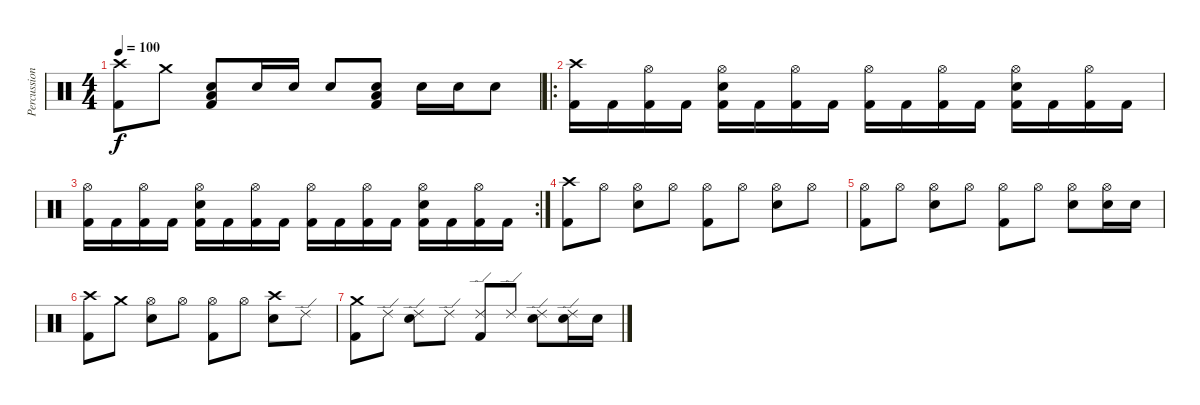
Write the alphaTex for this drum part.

\track ("Percussion" "Percussion") {instrument percussion}
\staff {score}
\articulation defaults
\ts (4 4)
\tempo 100
\clef neutral
\ks c
("Crash high (hit)" "Kick (hit) 2").8{dy f} "Crash medium (hit)".8 ("Snare (hit) 2" "Low Floor Tom (hit)" "Kick (hit) 2").8 "Snare (hit) 2".16 "Snare (hit) 2".16 "Snare (hit) 2".8 ("Low Floor Tom (hit)" "Snare (hit) 2" "Kick (hit) 2").8 "Snare (hit) 2".16 "Snare (hit) 2".16 "Snare (hit) 2".8 |
\ro
("Crash high (hit)" "Kick (hit) 2").16 "Kick (hit) 2".16 ("Hi-Hat (open)" "Kick (hit) 2").16 "Kick (hit) 2".16 ("Hi-Hat (open)" "Snare (hit) 2" "Kick (hit) 2").16 "Kick (hit) 2".16 ("Hi-Hat (open)" "Kick (hit) 2").16 "Kick (hit) 2".16 ("Hi-Hat (open)" "Kick (hit) 2").16 "Kick (hit) 2".16 ("Hi-Hat (open)" "Kick (hit) 2").16 "Kick (hit) 2".16 ("Hi-Hat (open)" "Snare (hit) 2" "Kick (hit) 2").16 "Kick (hit) 2".16 ("Hi-Hat (open)" "Kick (hit) 2").16 "Kick (hit) 2".16 |
\rc 2
("Hi-Hat (open)" "Kick (hit) 2").16 "Kick (hit) 2".16 ("Hi-Hat (open)" "Kick (hit) 2").16 "Kick (hit) 2".16 ("Hi-Hat (open)" "Snare (hit) 2" "Kick (hit) 2").16 "Kick (hit) 2".16 ("Hi-Hat (open)" "Kick (hit) 2").16 "Kick (hit) 2".16 ("Hi-Hat (open)" "Kick (hit) 2").16 "Kick (hit) 2".16 ("Hi-Hat (open)" "Kick (hit) 2").16 "Kick (hit) 2".16 ("Hi-Hat (open)" "Snare (hit) 2" "Kick (hit) 2").16 "Kick (hit) 2".16 ("Hi-Hat (open)" "Kick (hit) 2").16 "Kick (hit) 2".16 |
("Crash high (hit)" "Kick (hit) 2").8 "Hi-Hat (open)".8 ("Hi-Hat (open)" "Snare (hit) 2").8 "Hi-Hat (open)".8 ("Hi-Hat (open)" "Kick (hit) 2").8 "Hi-Hat (open)".8 ("Hi-Hat (open)" "Snare (hit) 2").8 "Hi-Hat (open)".8 |
("Hi-Hat (open)" "Kick (hit) 2").8 "Hi-Hat (open)".8 ("Hi-Hat (open)" "Snare (hit) 2").8 "Hi-Hat (open)".8 ("Hi-Hat (open)" "Kick (hit) 2").8 "Hi-Hat (open)".8 ("Hi-Hat (open)" "Snare (hit) 2").8 ("Hi-Hat (open)" "Snare (hit) 2").16 "Snare (hit) 2".16 |
("Crash high (hit)" "Kick (hit) 2").8 "Crash medium (hit)".8 ("Hi-Hat (open)" "Snare (hit) 2").8 "Hi-Hat (open)".8 ("Hi-Hat (open)" "Kick (hit) 2").8 "Hi-Hat (open)".8 ("Crash high (hit)" "Snare (hit) 2").8 "Ride (edge) 2".8 |
("Crash medium (hit)" "Kick (hit) 2").8 "Ride (edge) 2".8 ("Ride (edge) 2" "Snare (hit) 2").8 "Ride (edge) 2".8 ("Ride (edge) 2" "Kick (hit) 2").8 "Ride (edge) 2".8 ("Ride (edge) 2" "Snare (hit) 2").8 ("Ride (edge) 2" "Snare (hit) 2").16 "Snare (hit) 2".16
